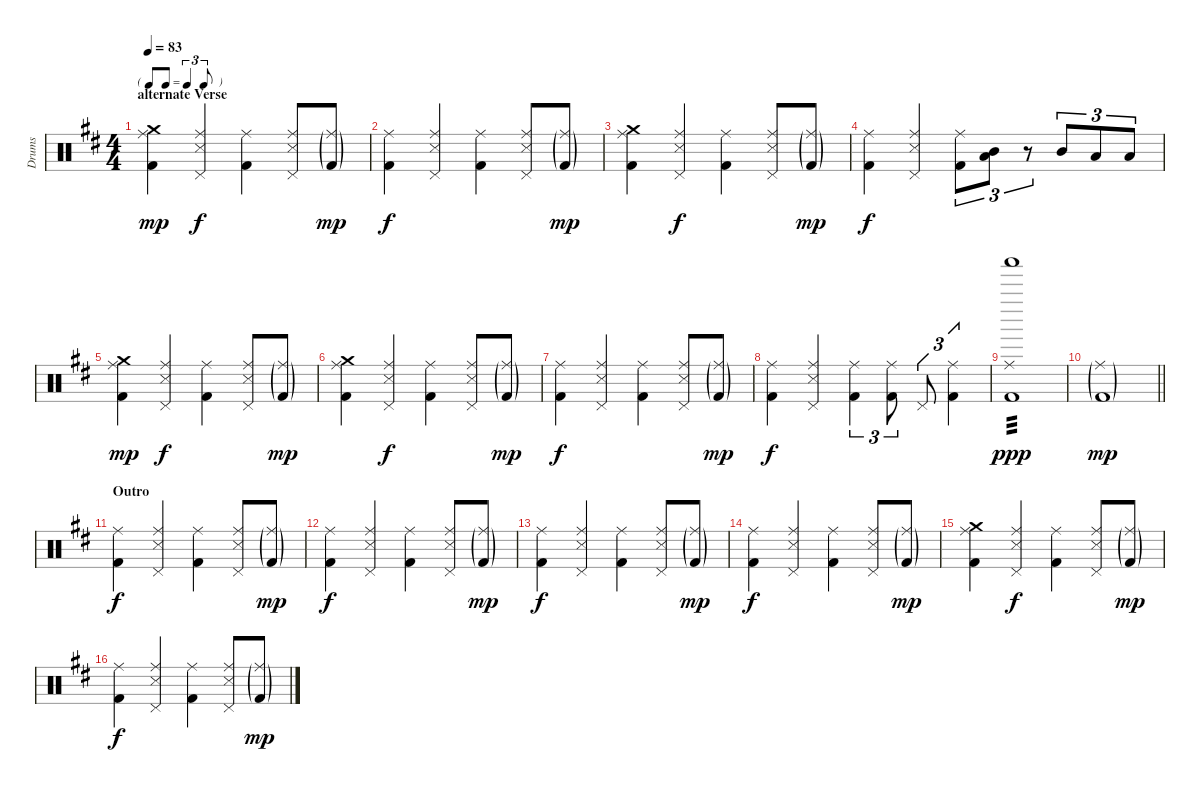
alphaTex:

\track ("Drums" "Drums") {instrument percussion}
\staff {score}
\articulation defaults
\ts (4 4)
\tf triplet8th
\section ("" "alternate Verse")
\tempo 83
\clef neutral
\ks d
("Ride (middle)" "Crash medium (hit)" "Kick (hit) 2").4{dy mp} ("Ride (middle)" "Snare (side stick) 3" "Pedal Hi-Hat (hit)").4{dy f} ("Ride (middle)" "Kick (hit) 2").4 ("Ride (middle)" "Snare (side stick) 3" "Pedal Hi-Hat (hit)").8 ("Ride (middle)"{g} "Kick (hit) 2"{g}).8{dy mp} |
("Ride (middle)" "Kick (hit) 2").4{dy f} ("Ride (middle)" "Snare (side stick) 3" "Pedal Hi-Hat (hit)").4 ("Ride (middle)" "Kick (hit) 2").4 ("Ride (middle)" "Snare (side stick) 3" "Pedal Hi-Hat (hit)").8 ("Ride (middle)"{g} "Kick (hit) 2"{g}).8{dy mp} |
("Ride (middle)" "Crash medium (hit)" "Kick (hit) 2").4 ("Ride (middle)" "Snare (side stick) 3" "Pedal Hi-Hat (hit)").4{dy f} ("Ride (middle)" "Kick (hit) 2").4 ("Ride (middle)" "Snare (side stick) 3" "Pedal Hi-Hat (hit)").8 ("Ride (middle)"{g} "Kick (hit) 2"{g}).8{dy mp} |
("Ride (middle)" "Kick (hit) 2").4{dy f} ("Ride (middle)" "Snare (side stick) 3" "Pedal Hi-Hat (hit)").4 ("Ride (middle)" "Kick (hit) 2").8{tu (3 2)} ("Mid Tom (hit)" "Low Tom (hit)").8{tu (3 2)} r.8{tu (3 2)} "Mid Tom (hit)".8{tu (3 2)} "Low Tom (hit)".8{tu (3 2)} "Low Floor Tom (hit)".8{tu (3 2)} |
("Ride (middle)" "Crash medium (hit)" "Kick (hit) 2").4{dy mp} ("Ride (middle)" "Snare (side stick) 3" "Pedal Hi-Hat (hit)").4{dy f} ("Ride (middle)" "Kick (hit) 2").4 ("Ride (middle)" "Snare (side stick) 3" "Pedal Hi-Hat (hit)").8 ("Ride (middle)"{g} "Kick (hit) 2"{g}).8{dy mp} |
("Ride (middle)" "Crash medium (hit)" "Kick (hit) 2").4 ("Ride (middle)" "Snare (side stick) 3" "Pedal Hi-Hat (hit)").4{dy f} ("Ride (middle)" "Kick (hit) 2").4 ("Ride (middle)" "Snare (side stick) 3" "Pedal Hi-Hat (hit)").8 ("Ride (middle)"{g} "Kick (hit) 2"{g}).8{dy mp} |
("Ride (middle)" "Kick (hit) 2").4{dy f} ("Ride (middle)" "Snare (side stick) 3" "Pedal Hi-Hat (hit)").4 ("Ride (middle)" "Kick (hit) 2").4 ("Ride (middle)" "Snare (side stick) 3" "Pedal Hi-Hat (hit)").8 ("Ride (middle)"{g} "Kick (hit) 2"{g}).8{dy mp} |
("Ride (middle)" "Kick (hit) 2").4{dy f} ("Ride (middle)" "Snare (side stick) 3" "Pedal Hi-Hat (hit)").4 ("Ride (middle)" "Kick (hit) 2").4{tu (3 2)} ("Ride (middle)" "Kick (hit) 2").8{tu (3 2)} "Pedal Hi-Hat (hit)".8{tu (3 2)} ("Ride (middle)" "Kick (hit) 2").4{tu (3 2)} |
("Ride (middle)" "Shaker (hit)" "Kick (hit) 2").1{tp 3 dy ppp} |
\barLineRight lightlight
("Ride (middle)"{g} "Kick (hit) 2"{g}).1{dy mp} |
\section ("" "Outro")
("Ride (middle)" "Kick (hit) 2").4{dy f} ("Ride (middle)" "Snare (side stick) 3" "Pedal Hi-Hat (hit)").4 ("Ride (middle)" "Kick (hit) 2").4 ("Ride (middle)" "Snare (side stick) 3" "Pedal Hi-Hat (hit)").8 ("Ride (middle)"{g} "Kick (hit) 2"{g}).8{dy mp} |
("Ride (middle)" "Kick (hit) 2").4{dy f} ("Ride (middle)" "Snare (side stick) 3" "Pedal Hi-Hat (hit)").4 ("Ride (middle)" "Kick (hit) 2").4 ("Ride (middle)" "Snare (side stick) 3" "Pedal Hi-Hat (hit)").8 ("Ride (middle)"{g} "Kick (hit) 2"{g}).8{dy mp} |
("Ride (middle)" "Kick (hit) 2").4{dy f} ("Ride (middle)" "Snare (side stick) 3" "Pedal Hi-Hat (hit)").4 ("Ride (middle)" "Kick (hit) 2").4 ("Ride (middle)" "Snare (side stick) 3" "Pedal Hi-Hat (hit)").8 ("Ride (middle)"{g} "Kick (hit) 2"{g}).8{dy mp} |
("Ride (middle)" "Kick (hit) 2").4{dy f} ("Ride (middle)" "Snare (side stick) 3" "Pedal Hi-Hat (hit)").4 ("Ride (middle)" "Kick (hit) 2").4 ("Ride (middle)" "Snare (side stick) 3" "Pedal Hi-Hat (hit)").8 ("Ride (middle)"{g} "Kick (hit) 2"{g}).8{dy mp} |
("Ride (middle)" "Crash medium (hit)" "Kick (hit) 2").4 ("Ride (middle)" "Snare (side stick) 3" "Pedal Hi-Hat (hit)").4{dy f} ("Ride (middle)" "Kick (hit) 2").4 ("Ride (middle)" "Snare (side stick) 3" "Pedal Hi-Hat (hit)").8 ("Ride (middle)"{g} "Kick (hit) 2"{g}).8{dy mp} |
("Ride (middle)" "Kick (hit) 2").4{dy f} ("Ride (middle)" "Snare (side stick) 3" "Pedal Hi-Hat (hit)").4 ("Ride (middle)" "Kick (hit) 2").4 ("Ride (middle)" "Snare (side stick) 3" "Pedal Hi-Hat (hit)").8 ("Ride (middle)"{g} "Kick (hit) 2"{g}).8{dy mp}
